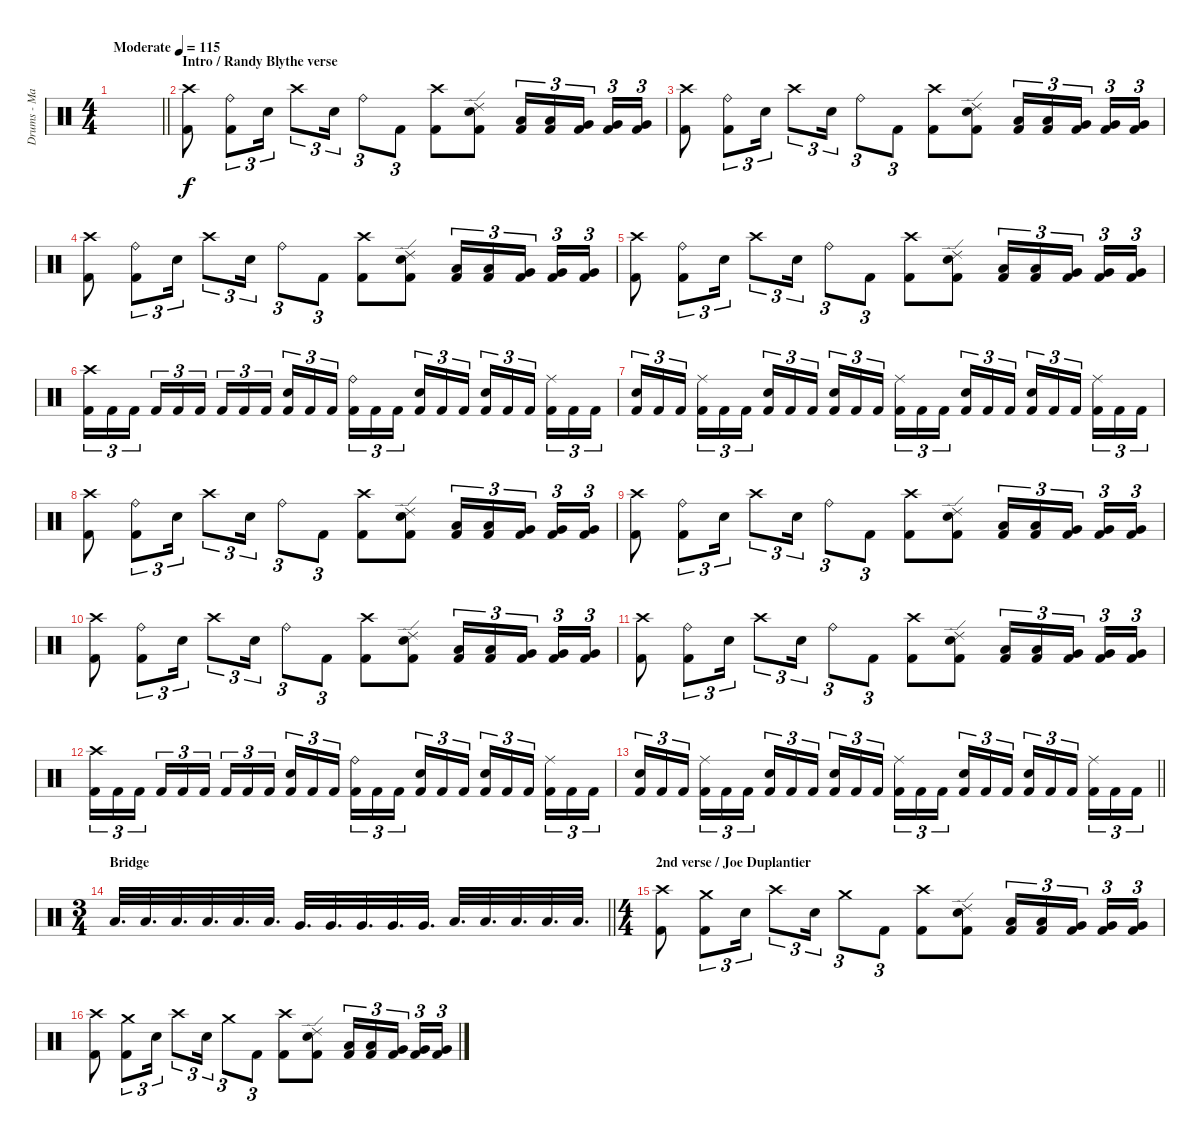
\track ("Drums - Mario Duplantier" "Drums - Ma") {instrument percussion}
\staff {score}
\articulation defaults
\ts (4 4)
\tempo (115 "Moderate")
\clef neutral
\barLineRight lightlight
\ks c
|
\section ("" "Intro / Randy Blythe verse")
("Crash high (hit)" "Kick (hit) 2").8 ("Ride (bell)" "Kick (hit) 2").8{tu (3 2)} "Electric Snare (hit)".16{tu (3 2)} "Crash high (hit)".8{tu (3 2)} "Electric Snare (hit)".16{tu (3 2)} "Ride (bell)".8{tu (3 2)} "Kick (hit) 2".8{tu (3 2)} ("Crash high (hit)" "Kick (hit) 2").8 ("Ride (edge) 2" "Electric Snare (hit)" "Kick (hit) 2").8 ("Low Tom (hit)" "Kick (hit) 2").16{tu (3 2)} ("Low Tom (hit)" "Kick (hit) 2").16{tu (3 2)} ("Very Low Tom (hit)" "Kick (hit) 2").16{tu (3 2) beam splitsecondary} ("Very Low Tom (hit)" "Kick (hit) 2").16{tu (3 2)} ("Very Low Tom (hit)" "Kick (hit) 2").16{tu (3 2)} |
("Crash high (hit)" "Kick (hit) 2").8 ("Ride (bell)" "Kick (hit) 2").8{tu (3 2)} "Electric Snare (hit)".16{tu (3 2)} "Crash high (hit)".8{tu (3 2)} "Electric Snare (hit)".16{tu (3 2)} "Ride (bell)".8{tu (3 2)} "Kick (hit) 2".8{tu (3 2)} ("Crash high (hit)" "Kick (hit) 2").8 ("Ride (edge) 2" "Electric Snare (hit)" "Kick (hit) 2").8 ("Low Tom (hit)" "Kick (hit) 2").16{tu (3 2)} ("Low Tom (hit)" "Kick (hit) 2").16{tu (3 2)} ("Very Low Tom (hit)" "Kick (hit) 2").16{tu (3 2) beam splitsecondary} ("Very Low Tom (hit)" "Kick (hit) 2").16{tu (3 2)} ("Very Low Tom (hit)" "Kick (hit) 2").16{tu (3 2)} |
("Crash high (hit)" "Kick (hit) 2").8 ("Ride (bell)" "Kick (hit) 2").8{tu (3 2)} "Electric Snare (hit)".16{tu (3 2)} "Crash high (hit)".8{tu (3 2)} "Electric Snare (hit)".16{tu (3 2)} "Ride (bell)".8{tu (3 2)} "Kick (hit) 2".8{tu (3 2)} ("Crash high (hit)" "Kick (hit) 2").8 ("Ride (edge) 2" "Electric Snare (hit)" "Kick (hit) 2").8 ("Low Tom (hit)" "Kick (hit) 2").16{tu (3 2)} ("Low Tom (hit)" "Kick (hit) 2").16{tu (3 2)} ("Very Low Tom (hit)" "Kick (hit) 2").16{tu (3 2) beam splitsecondary} ("Very Low Tom (hit)" "Kick (hit) 2").16{tu (3 2)} ("Very Low Tom (hit)" "Kick (hit) 2").16{tu (3 2)} |
("Crash high (hit)" "Kick (hit) 2").8 ("Ride (bell)" "Kick (hit) 2").8{tu (3 2)} "Electric Snare (hit)".16{tu (3 2)} "Crash high (hit)".8{tu (3 2)} "Electric Snare (hit)".16{tu (3 2)} "Ride (bell)".8{tu (3 2)} "Kick (hit) 2".8{tu (3 2)} ("Crash high (hit)" "Kick (hit) 2").8 ("Ride (edge) 2" "Electric Snare (hit)" "Kick (hit) 2").8 ("Low Tom (hit)" "Kick (hit) 2").16{tu (3 2)} ("Low Tom (hit)" "Kick (hit) 2").16{tu (3 2)} ("Very Low Tom (hit)" "Kick (hit) 2").16{tu (3 2) beam splitsecondary} ("Very Low Tom (hit)" "Kick (hit) 2").16{tu (3 2)} ("Very Low Tom (hit)" "Kick (hit) 2").16{tu (3 2)} |
("Crash high (hit)" "Kick (hit) 2").16{tu (3 2)} "Kick (hit) 2".16{tu (3 2)} "Kick (hit) 2".16{tu (3 2) beam splitsecondary} "Kick (hit) 2".16{tu (3 2)} "Kick (hit) 2".16{tu (3 2)} "Kick (hit) 2".16{tu (3 2)} "Kick (hit) 2".16{tu (3 2)} "Kick (hit) 2".16{tu (3 2)} "Kick (hit) 2".16{tu (3 2) beam splitsecondary} ("Electric Snare (hit)" "Kick (hit) 2").16{tu (3 2)} "Kick (hit) 2".16{tu (3 2)} "Kick (hit) 2".16{tu (3 2)} ("Ride (bell)" "Kick (hit) 2").16{tu (3 2)} "Kick (hit) 2".16{tu (3 2)} "Kick (hit) 2".16{tu (3 2) beam splitsecondary} ("Electric Snare (hit)" "Kick (hit) 2").16{tu (3 2)} "Kick (hit) 2".16{tu (3 2)} "Kick (hit) 2".16{tu (3 2)} ("Electric Snare (hit)" "Kick (hit) 2").16{tu (3 2)} "Kick (hit) 2".16{tu (3 2)} "Kick (hit) 2".16{tu (3 2) beam splitsecondary} ("Ride (middle)" "Kick (hit) 2").16{tu (3 2)} "Kick (hit) 2".16{tu (3 2)} "Kick (hit) 2".16{tu (3 2)} |
("Electric Snare (hit)" "Kick (hit) 2").16{tu (3 2)} "Kick (hit) 2".16{tu (3 2)} "Kick (hit) 2".16{tu (3 2) beam splitsecondary} ("Ride (middle)" "Kick (hit) 2").16{tu (3 2)} "Kick (hit) 2".16{tu (3 2)} "Kick (hit) 2".16{tu (3 2)} ("Electric Snare (hit)" "Kick (hit) 2").16{tu (3 2)} "Kick (hit) 2".16{tu (3 2)} "Kick (hit) 2".16{tu (3 2) beam splitsecondary} ("Electric Snare (hit)" "Kick (hit) 2").16{tu (3 2)} "Kick (hit) 2".16{tu (3 2)} "Kick (hit) 2".16{tu (3 2)} ("Ride (middle)" "Kick (hit) 2").16{tu (3 2)} "Kick (hit) 2".16{tu (3 2)} "Kick (hit) 2".16{tu (3 2) beam splitsecondary} ("Electric Snare (hit)" "Kick (hit) 2").16{tu (3 2)} "Kick (hit) 2".16{tu (3 2)} "Kick (hit) 2".16{tu (3 2)} ("Electric Snare (hit)" "Kick (hit) 2").16{tu (3 2)} "Kick (hit) 2".16{tu (3 2)} "Kick (hit) 2".16{tu (3 2) beam splitsecondary} ("Ride (middle)" "Kick (hit) 2").16{tu (3 2)} "Kick (hit) 2".16{tu (3 2)} "Kick (hit) 2".16{tu (3 2)} |
("Crash high (hit)" "Kick (hit) 2").8 ("Ride (bell)" "Kick (hit) 2").8{tu (3 2)} "Electric Snare (hit)".16{tu (3 2)} "Crash high (hit)".8{tu (3 2)} "Electric Snare (hit)".16{tu (3 2)} "Ride (bell)".8{tu (3 2)} "Kick (hit) 2".8{tu (3 2)} ("Crash high (hit)" "Kick (hit) 2").8 ("Ride (edge) 2" "Electric Snare (hit)" "Kick (hit) 2").8 ("Low Tom (hit)" "Kick (hit) 2").16{tu (3 2)} ("Low Tom (hit)" "Kick (hit) 2").16{tu (3 2)} ("Very Low Tom (hit)" "Kick (hit) 2").16{tu (3 2) beam splitsecondary} ("Very Low Tom (hit)" "Kick (hit) 2").16{tu (3 2)} ("Very Low Tom (hit)" "Kick (hit) 2").16{tu (3 2)} |
("Crash high (hit)" "Kick (hit) 2").8 ("Ride (bell)" "Kick (hit) 2").8{tu (3 2)} "Electric Snare (hit)".16{tu (3 2)} "Crash high (hit)".8{tu (3 2)} "Electric Snare (hit)".16{tu (3 2)} "Ride (bell)".8{tu (3 2)} "Kick (hit) 2".8{tu (3 2)} ("Crash high (hit)" "Kick (hit) 2").8 ("Ride (edge) 2" "Electric Snare (hit)" "Kick (hit) 2").8 ("Low Tom (hit)" "Kick (hit) 2").16{tu (3 2)} ("Low Tom (hit)" "Kick (hit) 2").16{tu (3 2)} ("Very Low Tom (hit)" "Kick (hit) 2").16{tu (3 2) beam splitsecondary} ("Very Low Tom (hit)" "Kick (hit) 2").16{tu (3 2)} ("Very Low Tom (hit)" "Kick (hit) 2").16{tu (3 2)} |
("Crash high (hit)" "Kick (hit) 2").8 ("Ride (bell)" "Kick (hit) 2").8{tu (3 2)} "Electric Snare (hit)".16{tu (3 2)} "Crash high (hit)".8{tu (3 2)} "Electric Snare (hit)".16{tu (3 2)} "Ride (bell)".8{tu (3 2)} "Kick (hit) 2".8{tu (3 2)} ("Crash high (hit)" "Kick (hit) 2").8 ("Ride (edge) 2" "Electric Snare (hit)" "Kick (hit) 2").8 ("Low Tom (hit)" "Kick (hit) 2").16{tu (3 2)} ("Low Tom (hit)" "Kick (hit) 2").16{tu (3 2)} ("Very Low Tom (hit)" "Kick (hit) 2").16{tu (3 2) beam splitsecondary} ("Very Low Tom (hit)" "Kick (hit) 2").16{tu (3 2)} ("Very Low Tom (hit)" "Kick (hit) 2").16{tu (3 2)} |
("Crash high (hit)" "Kick (hit) 2").8 ("Ride (bell)" "Kick (hit) 2").8{tu (3 2)} "Electric Snare (hit)".16{tu (3 2)} "Crash high (hit)".8{tu (3 2)} "Electric Snare (hit)".16{tu (3 2)} "Ride (bell)".8{tu (3 2)} "Kick (hit) 2".8{tu (3 2)} ("Crash high (hit)" "Kick (hit) 2").8 ("Ride (edge) 2" "Electric Snare (hit)" "Kick (hit) 2").8 ("Low Tom (hit)" "Kick (hit) 2").16{tu (3 2)} ("Low Tom (hit)" "Kick (hit) 2").16{tu (3 2)} ("Very Low Tom (hit)" "Kick (hit) 2").16{tu (3 2) beam splitsecondary} ("Very Low Tom (hit)" "Kick (hit) 2").16{tu (3 2)} ("Very Low Tom (hit)" "Kick (hit) 2").16{tu (3 2)} |
("Crash high (hit)" "Kick (hit) 2").16{tu (3 2)} "Kick (hit) 2".16{tu (3 2)} "Kick (hit) 2".16{tu (3 2) beam splitsecondary} "Kick (hit) 2".16{tu (3 2)} "Kick (hit) 2".16{tu (3 2)} "Kick (hit) 2".16{tu (3 2)} "Kick (hit) 2".16{tu (3 2)} "Kick (hit) 2".16{tu (3 2)} "Kick (hit) 2".16{tu (3 2) beam splitsecondary} ("Electric Snare (hit)" "Kick (hit) 2").16{tu (3 2)} "Kick (hit) 2".16{tu (3 2)} "Kick (hit) 2".16{tu (3 2)} ("Ride (bell)" "Kick (hit) 2").16{tu (3 2)} "Kick (hit) 2".16{tu (3 2)} "Kick (hit) 2".16{tu (3 2) beam splitsecondary} ("Electric Snare (hit)" "Kick (hit) 2").16{tu (3 2)} "Kick (hit) 2".16{tu (3 2)} "Kick (hit) 2".16{tu (3 2)} ("Electric Snare (hit)" "Kick (hit) 2").16{tu (3 2)} "Kick (hit) 2".16{tu (3 2)} "Kick (hit) 2".16{tu (3 2) beam splitsecondary} ("Ride (middle)" "Kick (hit) 2").16{tu (3 2)} "Kick (hit) 2".16{tu (3 2)} "Kick (hit) 2".16{tu (3 2)} |
\barLineRight lightlight
("Electric Snare (hit)" "Kick (hit) 2").16{tu (3 2)} "Kick (hit) 2".16{tu (3 2)} "Kick (hit) 2".16{tu (3 2) beam splitsecondary} ("Ride (middle)" "Kick (hit) 2").16{tu (3 2)} "Kick (hit) 2".16{tu (3 2)} "Kick (hit) 2".16{tu (3 2)} ("Electric Snare (hit)" "Kick (hit) 2").16{tu (3 2)} "Kick (hit) 2".16{tu (3 2)} "Kick (hit) 2".16{tu (3 2) beam splitsecondary} ("Electric Snare (hit)" "Kick (hit) 2").16{tu (3 2)} "Kick (hit) 2".16{tu (3 2)} "Kick (hit) 2".16{tu (3 2)} ("Ride (middle)" "Kick (hit) 2").16{tu (3 2)} "Kick (hit) 2".16{tu (3 2)} "Kick (hit) 2".16{tu (3 2) beam splitsecondary} ("Electric Snare (hit)" "Kick (hit) 2").16{tu (3 2)} "Kick (hit) 2".16{tu (3 2)} "Kick (hit) 2".16{tu (3 2)} ("Electric Snare (hit)" "Kick (hit) 2").16{tu (3 2)} "Kick (hit) 2".16{tu (3 2)} "Kick (hit) 2".16{tu (3 2) beam splitsecondary} ("Ride (middle)" "Kick (hit) 2").16{tu (3 2)} "Kick (hit) 2".16{tu (3 2)} "Kick (hit) 2".16{tu (3 2)} |
\ts (3 4)
\section ("" "Bridge")
\barLineRight lightlight "Low Tom (hit)".32{d} "Low Tom (hit)".32{d} "Low Tom (hit)".32{d} "Low Tom (hit)".32{d} "Low Tom (hit)".32{d} "Low Tom (hit)".32{d} "Very Low Tom (hit)".32{d} "Very Low Tom (hit)".32{d} "Very Low Tom (hit)".32{d} "Very Low Tom (hit)".32{d} "Very Low Tom (hit)".32{d} "Low Floor Tom (hit)".32{d} "Low Floor Tom (hit)".32{d} "Low Floor Tom (hit)".32{d} "Low Floor Tom (hit)".32{d} "Low Floor Tom (hit)".32{d}
|
\ts (4 4)
\section ("" "2nd verse / Joe Duplantier")
("Crash high (hit)" "Kick (hit) 2").8 ("Crash medium (hit)" "Kick (hit) 2").8{tu (3 2)} "Electric Snare (hit)".16{tu (3 2)} "Crash high (hit)".8{tu (3 2)} "Electric Snare (hit)".16{tu (3 2)} "Crash medium (hit)".8{tu (3 2)} "Kick (hit) 2".8{tu (3 2)} ("Crash high (hit)" "Kick (hit) 2").8 ("Ride (edge) 2" "Electric Snare (hit)" "Kick (hit) 2").8 ("Low Tom (hit)" "Kick (hit) 2").16{tu (3 2)} ("Low Tom (hit)" "Kick (hit) 2").16{tu (3 2)} ("Very Low Tom (hit)" "Kick (hit) 2").16{tu (3 2) beam splitsecondary} ("Very Low Tom (hit)" "Kick (hit) 2").16{tu (3 2)} ("Very Low Tom (hit)" "Kick (hit) 2").16{tu (3 2)} |
("Crash high (hit)" "Kick (hit) 2").8 ("Crash medium (hit)" "Kick (hit) 2").8{tu (3 2)} "Electric Snare (hit)".16{tu (3 2)} "Crash high (hit)".8{tu (3 2)} "Electric Snare (hit)".16{tu (3 2)} "Crash medium (hit)".8{tu (3 2)} "Kick (hit) 2".8{tu (3 2)} ("Crash high (hit)" "Kick (hit) 2").8 ("Ride (edge) 2" "Electric Snare (hit)" "Kick (hit) 2").8 ("Low Tom (hit)" "Kick (hit) 2").16{tu (3 2)} ("Low Tom (hit)" "Kick (hit) 2").16{tu (3 2)} ("Very Low Tom (hit)" "Kick (hit) 2").16{tu (3 2) beam splitsecondary} ("Very Low Tom (hit)" "Kick (hit) 2").16{tu (3 2)} ("Very Low Tom (hit)" "Kick (hit) 2").16{tu (3 2)}
